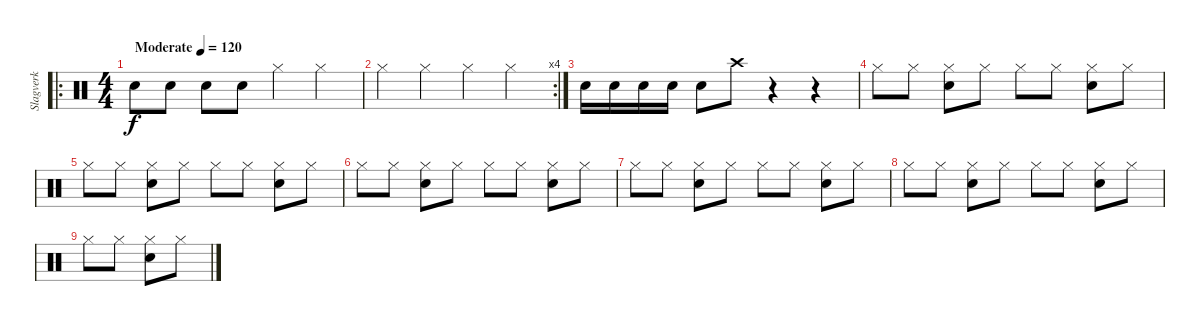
\track ("Slagverk" "Slagverk") {instrument percussion}
\staff
\articulation defaults
\ro
\ts (4 4)
\tempo (120 "Moderate")
\clef neutral
\ks c "Electric Snare (hit)".8{dy f} "Electric Snare (hit)".8 "Electric Snare (hit)".8 "Electric Snare (hit)".8 "Hi-Hat (closed)".4 "Hi-Hat (closed)".4
|
\rc 4 "Hi-Hat (closed)".4 "Hi-Hat (closed)".4 "Hi-Hat (closed)".4 "Hi-Hat (closed)".4
|
"Electric Snare (hit)".16 "Electric Snare (hit)".16 "Electric Snare (hit)".16 "Electric Snare (hit)".16 "Electric Snare (hit)".8 "Crash high (hit)".8 r.4 r.4 |
"Hi-Hat (closed)".8 "Hi-Hat (closed)".8 ("Hi-Hat (closed)" "Electric Snare (hit)").8 "Hi-Hat (closed)".8 "Hi-Hat (closed)".8 "Hi-Hat (closed)".8 ("Hi-Hat (closed)" "Electric Snare (hit)").8 "Hi-Hat (closed)".8 |
"Hi-Hat (closed)".8 "Hi-Hat (closed)".8 ("Hi-Hat (closed)" "Electric Snare (hit)").8 "Hi-Hat (closed)".8 "Hi-Hat (closed)".8 "Hi-Hat (closed)".8 ("Hi-Hat (closed)" "Electric Snare (hit)").8 "Hi-Hat (closed)".8 |
"Hi-Hat (closed)".8 "Hi-Hat (closed)".8 ("Hi-Hat (closed)" "Electric Snare (hit)").8 "Hi-Hat (closed)".8 "Hi-Hat (closed)".8 "Hi-Hat (closed)".8 ("Hi-Hat (closed)" "Electric Snare (hit)").8 "Hi-Hat (closed)".8 |
"Hi-Hat (closed)".8 "Hi-Hat (closed)".8 ("Hi-Hat (closed)" "Electric Snare (hit)").8 "Hi-Hat (closed)".8 "Hi-Hat (closed)".8 "Hi-Hat (closed)".8 ("Hi-Hat (closed)" "Electric Snare (hit)").8 "Hi-Hat (closed)".8 |
"Hi-Hat (closed)".8 "Hi-Hat (closed)".8 ("Hi-Hat (closed)" "Electric Snare (hit)").8 "Hi-Hat (closed)".8 "Hi-Hat (closed)".8 "Hi-Hat (closed)".8 ("Hi-Hat (closed)" "Electric Snare (hit)").8 "Hi-Hat (closed)".8 |
"Hi-Hat (closed)".8 "Hi-Hat (closed)".8 ("Hi-Hat (closed)" "Electric Snare (hit)").8 "Hi-Hat (closed)".8
